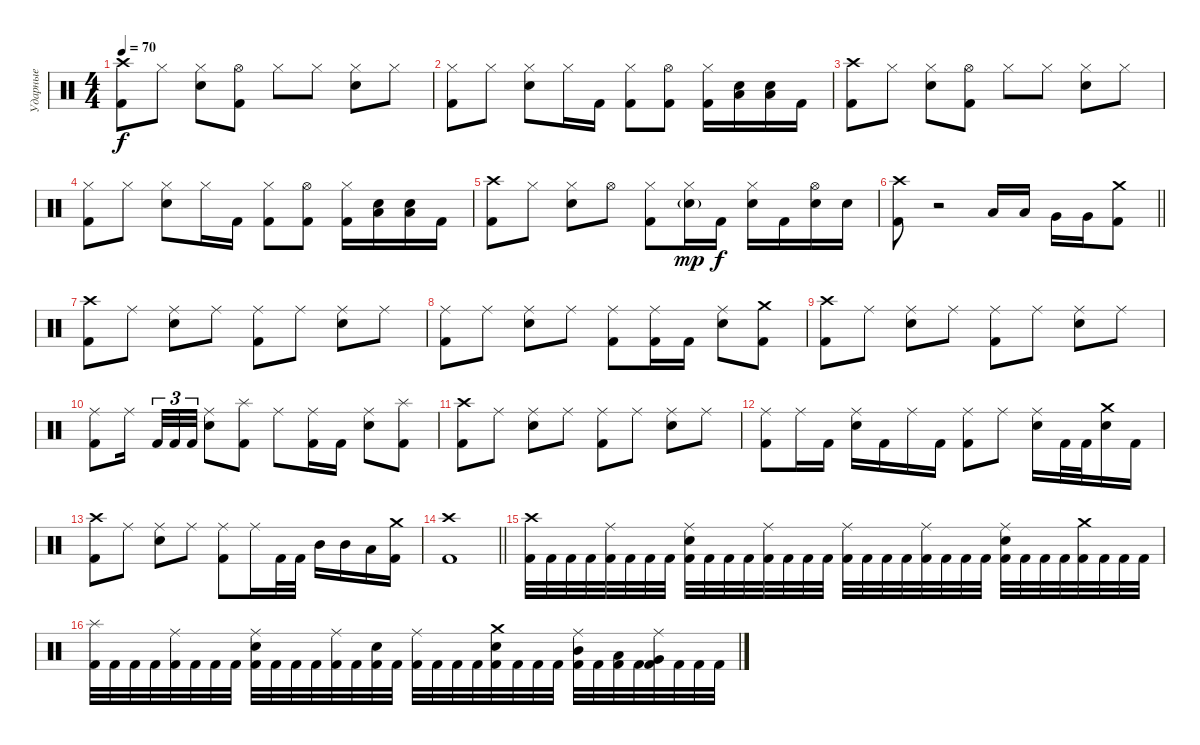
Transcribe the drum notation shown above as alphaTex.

\track ("Ударные" "Ударные") {instrument percussion}
\staff {score}
\articulation defaults
\ts (4 4)
\tempo 70
\clef neutral
\ks c
("Kick (hit) 2" "Crash high (hit)").8{dy f} "Hi-Hat (closed)".8 ("Hi-Hat (closed)" "Electric Snare (hit)").8 ("Hi-Hat (open)" "Kick (hit) 2").8 "Hi-Hat (closed)".8 "Hi-Hat (closed)".8 ("Hi-Hat (closed)" "Electric Snare (hit)").8 "Hi-Hat (closed)".8 |
("Hi-Hat (closed)" "Kick (hit) 2").8 "Hi-Hat (closed)".8 ("Hi-Hat (closed)" "Electric Snare (hit)").8 "Hi-Hat (closed)".16 "Kick (hit) 2".16 ("Hi-Hat (closed)" "Kick (hit) 2").8 ("Kick (hit) 2" "Hi-Hat (open)").8 ("Kick (hit) 2" "Hi-Hat (closed)").16 ("Electric Snare (hit)" "Low Floor Tom (hit)").16 ("Electric Snare (hit)" "Low Floor Tom (hit)").16 "Kick (hit) 2".16 |
("Kick (hit) 2" "Crash high (hit)").8 "Hi-Hat (closed)".8 ("Hi-Hat (closed)" "Electric Snare (hit)").8 ("Kick (hit) 2" "Hi-Hat (open)").8 "Hi-Hat (closed)".8 "Hi-Hat (closed)".8 ("Hi-Hat (closed)" "Electric Snare (hit)").8 "Hi-Hat (closed)".8 |
("Hi-Hat (closed)" "Kick (hit) 2").8 "Hi-Hat (closed)".8 ("Hi-Hat (closed)" "Electric Snare (hit)").8 "Hi-Hat (closed)".16 "Kick (hit) 2".16 ("Hi-Hat (closed)" "Kick (hit) 2").8 ("Kick (hit) 2" "Hi-Hat (open)").8 ("Kick (hit) 2" "Hi-Hat (closed)").16 ("Electric Snare (hit)" "Low Floor Tom (hit)").16 ("Electric Snare (hit)" "Low Floor Tom (hit)").16 "Kick (hit) 2".16 |
("Kick (hit) 2" "Crash high (hit)").8 "Hi-Hat (closed)".8 ("Hi-Hat (closed)" "Electric Snare (hit)").8 "Hi-Hat (open)".8 ("Hi-Hat (closed)" "Kick (hit) 2").8 ("Hi-Hat (closed)" "Electric Snare (hit)"{g}).16{dy mp} "Kick (hit) 2".16{dy f} ("Hi-Hat (closed)" "Electric Snare (hit)").16 "Kick (hit) 2".16 ("Hi-Hat (open)" "Electric Snare (hit)").16 "Electric Snare (hit)".16 |
\barLineRight lightlight
("Kick (hit) 2" "Crash high (hit)").8 r.2 "Low Tom (hit)".16 "Low Tom (hit)".16 "Very Low Tom (hit)".16 "Very Low Tom (hit)".16 ("Kick (hit) 2" "Crash medium (hit)").8 |
\section ("" "")
("Kick (hit) 2" "Crash high (hit)").8 "Ride (middle)".8 ("Ride (middle)" "Electric Snare (hit)").8 "Ride (middle)".8 ("Ride (middle)" "Kick (hit) 2").8 "Ride (middle)".8 ("Ride (middle)" "Electric Snare (hit)").8 "Ride (middle)".8 |
("Kick (hit) 2" "Ride (middle)").8 "Ride (middle)".8 ("Ride (middle)" "Electric Snare (hit)").8 "Ride (middle)".8 ("Ride (middle)" "Kick (hit) 2").8 ("Ride (middle)" "Kick (hit) 2").16 "Kick (hit) 2".16 ("Ride (middle)" "Electric Snare (hit)").8 ("Kick (hit) 2" "Crash medium (hit)").8 |
("Kick (hit) 2" "Crash high (hit)").8 "Ride (middle)".8 ("Ride (middle)" "Electric Snare (hit)").8 "Ride (middle)".8 ("Ride (middle)" "Kick (hit) 2").8 "Ride (middle)".8 ("Ride (middle)" "Electric Snare (hit)").8 "Ride (middle)".8 |
("Kick (hit) 2" "Ride (middle)").8 "Ride (middle)".16 "Kick (hit) 2".32{tu (3 2)} "Kick (hit) 2".32{tu (3 2)} "Kick (hit) 2".32{tu (3 2)} ("Ride (middle)" "Electric Snare (hit)").8 ("Kick (hit) 2" "Splash (hit)").8 "Ride (middle)".8 ("Ride (middle)" "Kick (hit) 2").16 "Kick (hit) 2".16 ("Ride (middle)" "Electric Snare (hit)").8 ("Kick (hit) 2" "Splash (hit)").8 |
("Kick (hit) 2" "Crash high (hit)").8 "Ride (middle)".8 ("Ride (middle)" "Electric Snare (hit)").8 "Ride (middle)".8 ("Ride (middle)" "Kick (hit) 2").8 "Ride (middle)".8 ("Ride (middle)" "Electric Snare (hit)").8 "Ride (middle)".8 |
("Kick (hit) 2" "Ride (middle)").8 "Ride (middle)".16 "Kick (hit) 2".16 ("Electric Snare (hit)" "Ride (middle)").16 "Kick (hit) 2".16 "Ride (middle)".16 "Kick (hit) 2".16 ("Ride (middle)" "Kick (hit) 2").8 "Ride (middle)".8 ("Ride (middle)" "Electric Snare (hit)").16 "Kick (hit) 2".32 "Kick (hit) 2".32 ("Electric Snare (hit)" "Crash medium (hit)").16 "Kick (hit) 2".16 |
("Kick (hit) 2" "Crash high (hit)").8 "Ride (middle)".8 ("Ride (middle)" "Electric Snare (hit)").8 "Ride (middle)".8 ("Ride (middle)" "Kick (hit) 2").8 "Ride (middle)".16 "Kick (hit) 2".32 "Kick (hit) 2".32 "Mid Tom (hit)".16 "Mid Tom (hit)".16 "Low Tom (hit)".16 ("Kick (hit) 2" "Crash medium (hit)").16 |
\barLineRight lightlight
("Kick (hit) 2" "Crash high (hit)").1 |
\section ("" "")
("Kick (hit) 2" "Crash high (hit)").32 "Kick (hit) 2".32 "Kick (hit) 2".32 "Kick (hit) 2".32 ("Kick (hit) 2" "Ride (middle)").32 "Kick (hit) 2".32 "Kick (hit) 2".32 "Kick (hit) 2".32 ("Kick (hit) 2" "Electric Snare (hit)" "Ride (middle)").32 "Kick (hit) 2".32 "Kick (hit) 2".32 "Kick (hit) 2".32 ("Kick (hit) 2" "Ride (middle)").32 "Kick (hit) 2".32 "Kick (hit) 2".32 "Kick (hit) 2".32 ("Kick (hit) 2" "Ride (middle)").32 "Kick (hit) 2".32 "Kick (hit) 2".32 "Kick (hit) 2".32 ("Kick (hit) 2" "Ride (middle)").32 "Kick (hit) 2".32 "Kick (hit) 2".32 "Kick (hit) 2".32 ("Kick (hit) 2" "Electric Snare (hit)" "Ride (middle)").32 "Kick (hit) 2".32 "Kick (hit) 2".32 "Kick (hit) 2".32 ("Kick (hit) 2" "Crash medium (hit)").32 "Kick (hit) 2".32 "Kick (hit) 2".32 "Kick (hit) 2".32 |
("Kick (hit) 2" "Splash (hit)").32 "Kick (hit) 2".32 "Kick (hit) 2".32 "Kick (hit) 2".32 ("Kick (hit) 2" "Ride (middle)").32 "Kick (hit) 2".32 "Kick (hit) 2".32 "Kick (hit) 2".32 ("Kick (hit) 2" "Electric Snare (hit)" "Ride (middle)").32 "Kick (hit) 2".32 "Kick (hit) 2".32 "Kick (hit) 2".32 ("Kick (hit) 2" "Ride (middle)").32 "Kick (hit) 2".32 ("Kick (hit) 2" "Electric Snare (hit)").32 "Kick (hit) 2".32 ("Kick (hit) 2" "Ride (middle)").32 "Kick (hit) 2".32 "Kick (hit) 2".32 "Kick (hit) 2".32 ("Kick (hit) 2" "Electric Snare (hit)" "Crash medium (hit)").32 "Kick (hit) 2".32 "Kick (hit) 2".32 "Kick (hit) 2".32 ("Kick (hit) 2" "Mid Tom (hit)" "Ride (middle)").32 "Kick (hit) 2".32 ("Kick (hit) 2" "Low Tom (hit)").32 "Kick (hit) 2".32 ("Kick (hit) 2" "Very Low Tom (hit)" "Ride (middle)").32 "Kick (hit) 2".32 "Kick (hit) 2".32 "Kick (hit) 2".32
